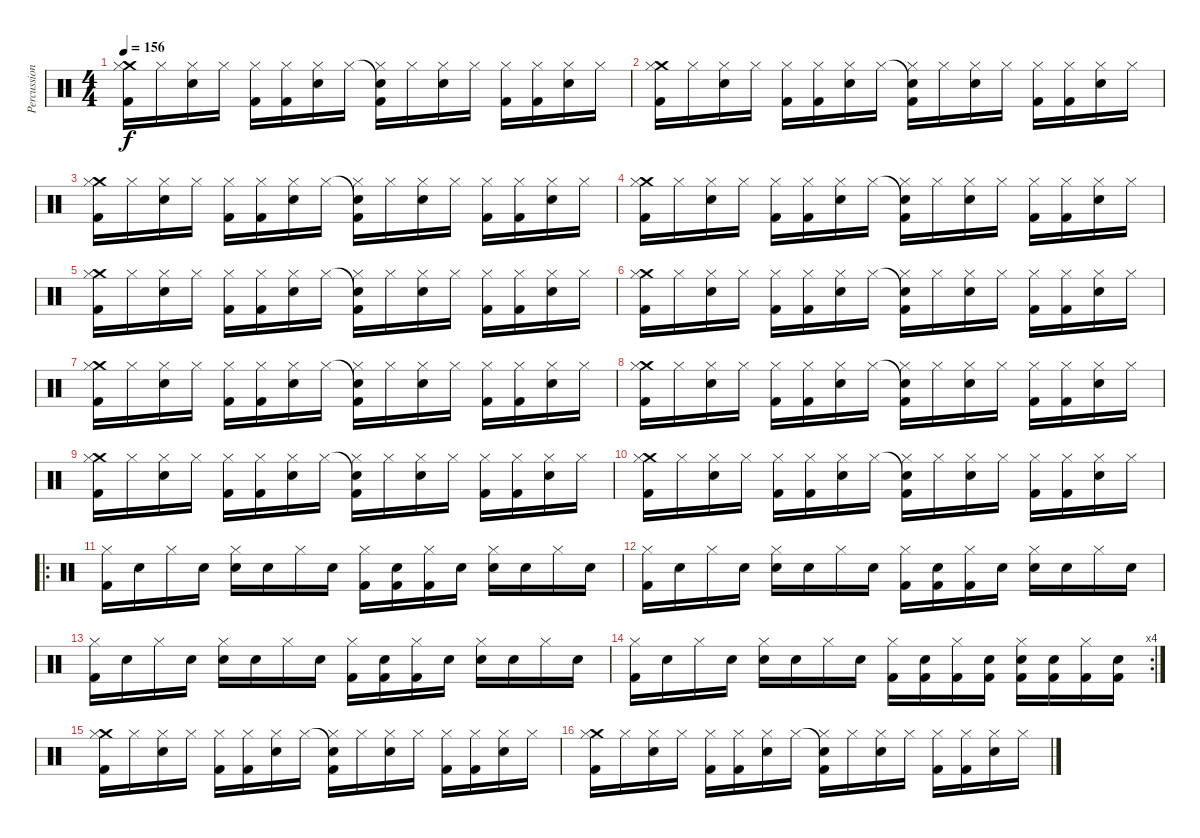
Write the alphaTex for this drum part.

\track ("Percussion" "Percussion") {instrument percussion}
\staff {score}
\articulation defaults
\ts (4 4)
\tempo 156
\clef neutral
\ks c
("Crash medium (hit)" "Hi-Hat (closed)" "Kick (hit) 2").16{dy f} "Hi-Hat (closed)".16 ("Hi-Hat (closed)" "Electric Snare (hit)").16 "Hi-Hat (closed)".16 ("Hi-Hat (closed)" "Kick (hit) 2").16 ("Hi-Hat (closed)" "Kick (hit) 2").16 ("Hi-Hat (closed)" "Electric Snare (hit)").16 "Hi-Hat (closed)".16 ("Snare (hit)"{t} "Hi-Hat (closed)" "Kick (hit) 2").16 "Hi-Hat (closed)".16 ("Hi-Hat (closed)" "Electric Snare (hit)").16 "Hi-Hat (closed)".16 ("Hi-Hat (closed)" "Kick (hit) 2").16 ("Hi-Hat (closed)" "Kick (hit) 2").16 ("Hi-Hat (closed)" "Electric Snare (hit)").16 "Hi-Hat (closed)".16 |
("Crash medium (hit)" "Hi-Hat (closed)" "Kick (hit) 2").16 "Hi-Hat (closed)".16 ("Hi-Hat (closed)" "Electric Snare (hit)").16 "Hi-Hat (closed)".16 ("Hi-Hat (closed)" "Kick (hit) 2").16 ("Hi-Hat (closed)" "Kick (hit) 2").16 ("Hi-Hat (closed)" "Electric Snare (hit)").16 "Hi-Hat (closed)".16 ("Snare (hit)"{t} "Hi-Hat (closed)" "Kick (hit) 2").16 "Hi-Hat (closed)".16 ("Hi-Hat (closed)" "Electric Snare (hit)").16 "Hi-Hat (closed)".16 ("Hi-Hat (closed)" "Kick (hit) 2").16 ("Hi-Hat (closed)" "Kick (hit) 2").16 ("Hi-Hat (closed)" "Electric Snare (hit)").16 "Hi-Hat (closed)".16 |
("Crash medium (hit)" "Hi-Hat (closed)" "Kick (hit) 2").16 "Hi-Hat (closed)".16 ("Hi-Hat (closed)" "Electric Snare (hit)").16 "Hi-Hat (closed)".16 ("Hi-Hat (closed)" "Kick (hit) 2").16 ("Hi-Hat (closed)" "Kick (hit) 2").16 ("Hi-Hat (closed)" "Electric Snare (hit)").16 "Hi-Hat (closed)".16 ("Snare (hit)"{t} "Hi-Hat (closed)" "Kick (hit) 2").16 "Hi-Hat (closed)".16 ("Hi-Hat (closed)" "Electric Snare (hit)").16 "Hi-Hat (closed)".16 ("Hi-Hat (closed)" "Kick (hit) 2").16 ("Hi-Hat (closed)" "Kick (hit) 2").16 ("Hi-Hat (closed)" "Electric Snare (hit)").16 "Hi-Hat (closed)".16 |
("Crash medium (hit)" "Hi-Hat (closed)" "Kick (hit) 2").16 "Hi-Hat (closed)".16 ("Hi-Hat (closed)" "Electric Snare (hit)").16 "Hi-Hat (closed)".16 ("Hi-Hat (closed)" "Kick (hit) 2").16 ("Hi-Hat (closed)" "Kick (hit) 2").16 ("Hi-Hat (closed)" "Electric Snare (hit)").16 "Hi-Hat (closed)".16 ("Snare (hit)"{t} "Hi-Hat (closed)" "Kick (hit) 2").16 "Hi-Hat (closed)".16 ("Hi-Hat (closed)" "Electric Snare (hit)").16 "Hi-Hat (closed)".16 ("Hi-Hat (closed)" "Kick (hit) 2").16 ("Hi-Hat (closed)" "Kick (hit) 2").16 ("Hi-Hat (closed)" "Electric Snare (hit)").16 "Hi-Hat (closed)".16 |
("Crash medium (hit)" "Hi-Hat (closed)" "Kick (hit) 2").16 "Hi-Hat (closed)".16 ("Hi-Hat (closed)" "Electric Snare (hit)").16 "Hi-Hat (closed)".16 ("Hi-Hat (closed)" "Kick (hit) 2").16 ("Hi-Hat (closed)" "Kick (hit) 2").16 ("Hi-Hat (closed)" "Electric Snare (hit)").16 "Hi-Hat (closed)".16 ("Snare (hit)"{t} "Hi-Hat (closed)" "Kick (hit) 2").16 "Hi-Hat (closed)".16 ("Hi-Hat (closed)" "Electric Snare (hit)").16 "Hi-Hat (closed)".16 ("Hi-Hat (closed)" "Kick (hit) 2").16 ("Hi-Hat (closed)" "Kick (hit) 2").16 ("Hi-Hat (closed)" "Electric Snare (hit)").16 "Hi-Hat (closed)".16 |
("Crash medium (hit)" "Hi-Hat (closed)" "Kick (hit) 2").16 "Hi-Hat (closed)".16 ("Hi-Hat (closed)" "Electric Snare (hit)").16 "Hi-Hat (closed)".16 ("Hi-Hat (closed)" "Kick (hit) 2").16 ("Hi-Hat (closed)" "Kick (hit) 2").16 ("Hi-Hat (closed)" "Electric Snare (hit)").16 "Hi-Hat (closed)".16 ("Snare (hit)"{t} "Hi-Hat (closed)" "Kick (hit) 2").16 "Hi-Hat (closed)".16 ("Hi-Hat (closed)" "Electric Snare (hit)").16 "Hi-Hat (closed)".16 ("Hi-Hat (closed)" "Kick (hit) 2").16 ("Hi-Hat (closed)" "Kick (hit) 2").16 ("Hi-Hat (closed)" "Electric Snare (hit)").16 "Hi-Hat (closed)".16 |
("Crash medium (hit)" "Hi-Hat (closed)" "Kick (hit) 2").16 "Hi-Hat (closed)".16 ("Hi-Hat (closed)" "Electric Snare (hit)").16 "Hi-Hat (closed)".16 ("Hi-Hat (closed)" "Kick (hit) 2").16 ("Hi-Hat (closed)" "Kick (hit) 2").16 ("Hi-Hat (closed)" "Electric Snare (hit)").16 "Hi-Hat (closed)".16 ("Snare (hit)"{t} "Hi-Hat (closed)" "Kick (hit) 2").16 "Hi-Hat (closed)".16 ("Hi-Hat (closed)" "Electric Snare (hit)").16 "Hi-Hat (closed)".16 ("Hi-Hat (closed)" "Kick (hit) 2").16 ("Hi-Hat (closed)" "Kick (hit) 2").16 ("Hi-Hat (closed)" "Electric Snare (hit)").16 "Hi-Hat (closed)".16 |
("Crash medium (hit)" "Hi-Hat (closed)" "Kick (hit) 2").16 "Hi-Hat (closed)".16 ("Hi-Hat (closed)" "Electric Snare (hit)").16 "Hi-Hat (closed)".16 ("Hi-Hat (closed)" "Kick (hit) 2").16 ("Hi-Hat (closed)" "Kick (hit) 2").16 ("Hi-Hat (closed)" "Electric Snare (hit)").16 "Hi-Hat (closed)".16 ("Snare (hit)"{t} "Hi-Hat (closed)" "Kick (hit) 2").16 "Hi-Hat (closed)".16 ("Hi-Hat (closed)" "Electric Snare (hit)").16 "Hi-Hat (closed)".16 ("Hi-Hat (closed)" "Kick (hit) 2").16 ("Hi-Hat (closed)" "Kick (hit) 2").16 ("Hi-Hat (closed)" "Electric Snare (hit)").16 "Hi-Hat (closed)".16 |
("Crash medium (hit)" "Hi-Hat (closed)" "Kick (hit) 2").16 "Hi-Hat (closed)".16 ("Hi-Hat (closed)" "Electric Snare (hit)").16 "Hi-Hat (closed)".16 ("Hi-Hat (closed)" "Kick (hit) 2").16 ("Hi-Hat (closed)" "Kick (hit) 2").16 ("Hi-Hat (closed)" "Electric Snare (hit)").16 "Hi-Hat (closed)".16 ("Snare (hit)"{t} "Hi-Hat (closed)" "Kick (hit) 2").16 "Hi-Hat (closed)".16 ("Hi-Hat (closed)" "Electric Snare (hit)").16 "Hi-Hat (closed)".16 ("Hi-Hat (closed)" "Kick (hit) 2").16 ("Hi-Hat (closed)" "Kick (hit) 2").16 ("Hi-Hat (closed)" "Electric Snare (hit)").16 "Hi-Hat (closed)".16 |
("Crash medium (hit)" "Hi-Hat (closed)" "Kick (hit) 2").16 "Hi-Hat (closed)".16 ("Hi-Hat (closed)" "Electric Snare (hit)").16 "Hi-Hat (closed)".16 ("Hi-Hat (closed)" "Kick (hit) 2").16 ("Hi-Hat (closed)" "Kick (hit) 2").16 ("Hi-Hat (closed)" "Electric Snare (hit)").16 "Hi-Hat (closed)".16 ("Snare (hit)"{t} "Hi-Hat (closed)" "Kick (hit) 2").16 "Hi-Hat (closed)".16 ("Hi-Hat (closed)" "Electric Snare (hit)").16 "Hi-Hat (closed)".16 ("Hi-Hat (closed)" "Kick (hit) 2").16 ("Hi-Hat (closed)" "Kick (hit) 2").16 ("Hi-Hat (closed)" "Electric Snare (hit)").16 "Hi-Hat (closed)".16 |
\ro
("Hi-Hat (closed)" "Kick (hit) 2").16 "Snare (hit)".16 "Hi-Hat (closed)".16 "Snare (hit)".16 ("Hi-Hat (closed)" "Snare (hit) 2").16 "Snare (hit)".16 "Hi-Hat (closed)".16 "Snare (hit)".16 ("Hi-Hat (closed)" "Kick (hit) 2").16 ("Snare (hit)" "Kick (hit) 2").16 ("Hi-Hat (closed)" "Kick (hit) 2").16 "Snare (hit)".16 ("Hi-Hat (closed)" "Snare (hit) 2").16 "Snare (hit)".16 "Hi-Hat (closed)".16 "Snare (hit)".16 |
("Hi-Hat (closed)" "Kick (hit) 2").16 "Snare (hit)".16 "Hi-Hat (closed)".16 "Snare (hit)".16 ("Hi-Hat (closed)" "Snare (hit) 2").16 "Snare (hit)".16 "Hi-Hat (closed)".16 "Snare (hit)".16 ("Hi-Hat (closed)" "Kick (hit) 2").16 ("Snare (hit)" "Kick (hit) 2").16 ("Hi-Hat (closed)" "Kick (hit) 2").16 "Snare (hit)".16 ("Hi-Hat (closed)" "Snare (hit) 2").16 "Snare (hit)".16 "Hi-Hat (closed)".16 "Snare (hit)".16 |
("Hi-Hat (closed)" "Kick (hit) 2").16 "Snare (hit)".16 "Hi-Hat (closed)".16 "Snare (hit)".16 ("Hi-Hat (closed)" "Snare (hit) 2").16 "Snare (hit)".16 "Hi-Hat (closed)".16 "Snare (hit)".16 ("Hi-Hat (closed)" "Kick (hit) 2").16 ("Snare (hit)" "Kick (hit) 2").16 ("Hi-Hat (closed)" "Kick (hit) 2").16 "Snare (hit)".16 ("Hi-Hat (closed)" "Snare (hit) 2").16 "Snare (hit)".16 "Hi-Hat (closed)".16 "Snare (hit)".16 |
\rc 4
("Hi-Hat (closed)" "Kick (hit) 2").16 "Snare (hit)".16 "Hi-Hat (closed)".16 "Snare (hit)".16 ("Hi-Hat (closed)" "Snare (hit) 2").16 "Snare (hit)".16 "Hi-Hat (closed)".16 "Snare (hit)".16 ("Hi-Hat (closed)" "Kick (hit) 2").16 ("Snare (hit)" "Kick (hit) 2").16 ("Hi-Hat (closed)" "Kick (hit) 2").16 ("Snare (hit)" "Kick (hit) 2").16 ("Hi-Hat (closed)" "Snare (hit) 2" "Kick (hit) 2").16 ("Snare (hit)" "Kick (hit) 2").16 ("Hi-Hat (closed)" "Kick (hit) 2").16 ("Snare (hit)" "Kick (hit) 2").16 |
("Crash medium (hit)" "Hi-Hat (closed)" "Kick (hit) 2").16 "Hi-Hat (closed)".16 ("Hi-Hat (closed)" "Electric Snare (hit)").16 "Hi-Hat (closed)".16 ("Hi-Hat (closed)" "Kick (hit) 2").16 ("Hi-Hat (closed)" "Kick (hit) 2").16 ("Hi-Hat (closed)" "Electric Snare (hit)").16 "Hi-Hat (closed)".16 ("Snare (hit)"{t} "Hi-Hat (closed)" "Kick (hit) 2").16 "Hi-Hat (closed)".16 ("Hi-Hat (closed)" "Electric Snare (hit)").16 "Hi-Hat (closed)".16 ("Hi-Hat (closed)" "Kick (hit) 2").16 ("Hi-Hat (closed)" "Kick (hit) 2").16 ("Hi-Hat (closed)" "Electric Snare (hit)").16 "Hi-Hat (closed)".16 |
("Crash medium (hit)" "Hi-Hat (closed)" "Kick (hit) 2").16 "Hi-Hat (closed)".16 ("Hi-Hat (closed)" "Electric Snare (hit)").16 "Hi-Hat (closed)".16 ("Hi-Hat (closed)" "Kick (hit) 2").16 ("Hi-Hat (closed)" "Kick (hit) 2").16 ("Hi-Hat (closed)" "Electric Snare (hit)").16 "Hi-Hat (closed)".16 ("Snare (hit)"{t} "Hi-Hat (closed)" "Kick (hit) 2").16 "Hi-Hat (closed)".16 ("Hi-Hat (closed)" "Electric Snare (hit)").16 "Hi-Hat (closed)".16 ("Hi-Hat (closed)" "Kick (hit) 2").16 ("Hi-Hat (closed)" "Kick (hit) 2").16 ("Hi-Hat (closed)" "Electric Snare (hit)").16 "Hi-Hat (closed)".16
